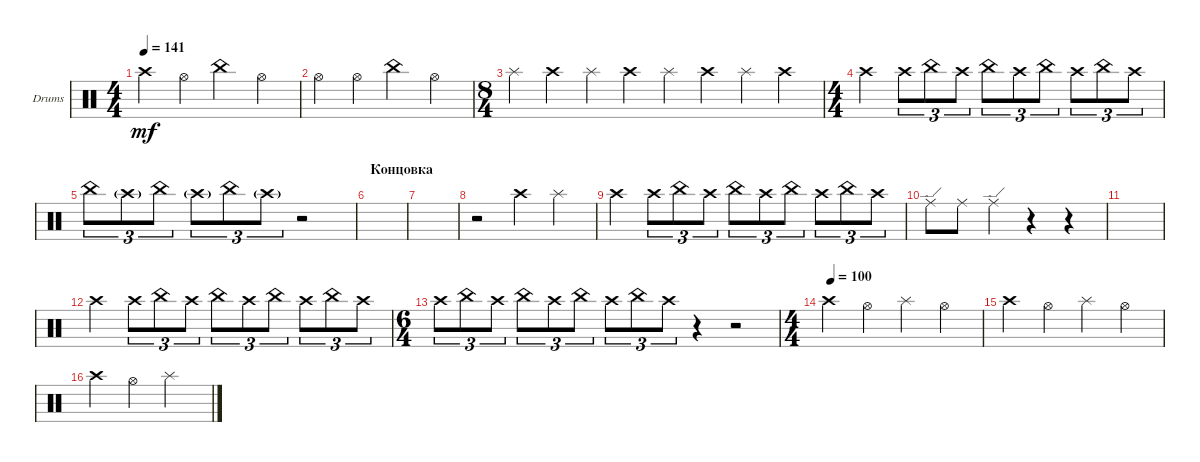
\defaultSystemsLayout 4
\bracketExtendMode groupsimilarinstruments
\firstSystemTrackNameOrientation horizontal
\otherSystemsTrackNameOrientation horizontal
\track ("Cymbol" "Drums") {instrument percussion}
\staff {score}
\articulation defaults
\ts (4 4)
\tempo 141
\clef neutral
\scale
0.390805
\ks c "Crash high (hit)".4{dy mf} "Hi-Hat (open)".4 "China (hit)".4 "Hi-Hat (open)".4
|
\scale
0.218391 "Hi-Hat (open)".4 "Hi-Hat (open)".4 "China (hit)".4 "Hi-Hat (open)".4 |
\ts (8 4)
\scale
0.390805 "Splash (hit)".4 "Crash high (hit)".4 "Splash (hit)".4 "Crash high (hit)".4 "Splash (hit)".4 "Crash high (hit)".4 "Splash (hit)".4 "Crash high (hit)".4 |
\ts (4 4)
\scale
0.333333 "Crash high (hit)".4 "Crash high (hit)".8{tu (3 2)} "China (hit)".8{tu (3 2)} "Crash high (hit)".8{tu (3 2)} "China (hit)".8{tu (3 2)} "Crash high (hit)".8{tu (3 2)} "China (hit)".8{tu (3 2)} "Crash high (hit)".8{tu (3 2)} "China (hit)".8{tu (3 2)} "Crash high (hit)".8{tu (3 2)} |
\scale
0.333333 "China (hit)".8{tu (3 2)} "Crash high (hit)"{g}.8{tu (3 2)} "China (hit)".8{tu (3 2)} "Crash high (hit)"{g}.8{tu (3 2)} "China (hit)".8{tu (3 2)} "Crash high (hit)"{g}.8{tu (3 2)} r.2 |
\section ("" "Концовка")
\scale
0.333333 |
|
r.2 "Crash high (hit)".4 "Splash (hit)".4 |
"Crash high (hit)".4 "Crash high (hit)".8{tu (3 2)} "China (hit)".8{tu (3 2)} "Crash high (hit)".8{tu (3 2)} "China (hit)".8{tu (3 2)} "Crash high (hit)".8{tu (3 2)} "China (hit)".8{tu (3 2)} "Crash high (hit)".8{tu (3 2)} "China (hit)".8{tu (3 2)} "Crash high (hit)".8{tu (3 2)} |
"Ride (edge)".8 "Ride (middle)".8 "Ride (edge)".4 r.4 r.4 |
|
"Crash high (hit)".4 "Crash high (hit)".8{tu (3 2)} "China (hit)".8{tu (3 2)} "Crash high (hit)".8{tu (3 2)} "China (hit)".8{tu (3 2)} "Crash high (hit)".8{tu (3 2)} "China (hit)".8{tu (3 2)} "Crash high (hit)".8{tu (3 2)} "China (hit)".8{tu (3 2)} "Crash high (hit)".8{tu (3 2)} |
\ts (6 4)
"Crash high (hit)".8{tu (3 2)} "China (hit)".8{tu (3 2)} "Crash high (hit)".8{tu (3 2)} "China (hit)".8{tu (3 2)} "Crash high (hit)".8{tu (3 2)} "China (hit)".8{tu (3 2)} "Crash high (hit)".8{tu (3 2)} "China (hit)".8{tu (3 2)} "Crash high (hit)".8{tu (3 2)} r.4 r.2 |
\ts (4 4)
\tempo (100 0.01875)
"Crash high (hit)".4 "Hi-Hat (open)".4 "Splash (hit)".4 "Hi-Hat (open)".4 |
"Crash high (hit)".4 "Hi-Hat (open)".4 "Splash (hit)".4 "Hi-Hat (open)".4 |
"Crash high (hit)".4 "Hi-Hat (open)".4 "Splash (hit)".2
